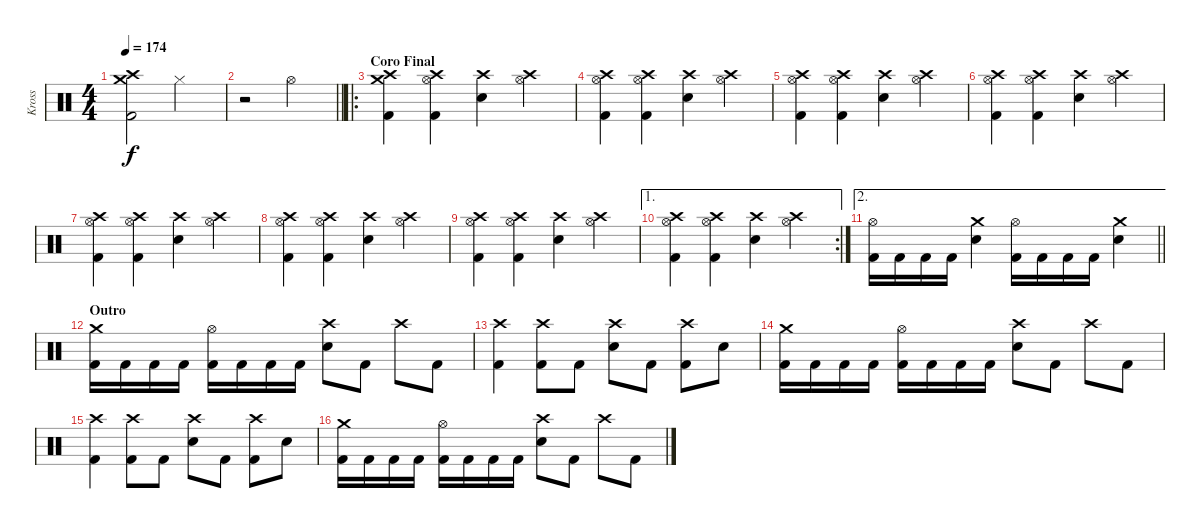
\track ("Kross" "Kross") {instrument percussion}
\staff {score}
\articulation defaults
\ts (4 4)
\tempo 174
\clef neutral
\ks c
("Crash high (hit)" "Crash medium (hit)" "Kick (hit) 2").2{dy f} "Hi-Hat (closed)".2 |
\barLineRight lightlight
r.2 "Hi-Hat (open)".2 |
\ro
\section ("" "Coro Final")
("Crash high (hit)" "Crash medium (hit)" "Kick (hit) 2").4 ("Crash high (hit)" "Hi-Hat (open)" "Kick (hit) 2").4 ("Crash high (hit)" "Electric Snare (hit)").4 ("Crash high (hit)" "Hi-Hat (open)").4 |
("Crash high (hit)" "Hi-Hat (open)" "Kick (hit) 2").4 ("Crash high (hit)" "Hi-Hat (open)" "Kick (hit) 2").4 ("Crash high (hit)" "Electric Snare (hit)").4 ("Crash high (hit)" "Hi-Hat (open)").4 |
("Crash high (hit)" "Hi-Hat (open)" "Kick (hit) 2").4 ("Crash high (hit)" "Hi-Hat (open)" "Kick (hit) 2").4 ("Crash high (hit)" "Electric Snare (hit)").4 ("Crash high (hit)" "Hi-Hat (open)").4 |
("Crash high (hit)" "Hi-Hat (open)" "Kick (hit) 2").4 ("Crash high (hit)" "Hi-Hat (open)" "Kick (hit) 2").4 ("Crash high (hit)" "Electric Snare (hit)").4 ("Crash high (hit)" "Hi-Hat (open)").4 |
("Crash high (hit)" "Hi-Hat (open)" "Kick (hit) 2").4 ("Crash high (hit)" "Hi-Hat (open)" "Kick (hit) 2").4 ("Crash high (hit)" "Electric Snare (hit)").4 ("Crash high (hit)" "Hi-Hat (open)").4 |
("Crash high (hit)" "Hi-Hat (open)" "Kick (hit) 2").4 ("Crash high (hit)" "Hi-Hat (open)" "Kick (hit) 2").4 ("Crash high (hit)" "Electric Snare (hit)").4 ("Crash high (hit)" "Hi-Hat (open)").4 |
("Crash high (hit)" "Hi-Hat (open)" "Kick (hit) 2").4 ("Crash high (hit)" "Hi-Hat (open)" "Kick (hit) 2").4 ("Crash high (hit)" "Electric Snare (hit)").4 ("Crash high (hit)" "Hi-Hat (open)").4 |
\ae 1
\rc 2
("Crash high (hit)" "Hi-Hat (open)" "Kick (hit) 2").4 ("Crash high (hit)" "Hi-Hat (open)" "Kick (hit) 2").4 ("Crash high (hit)" "Electric Snare (hit)").4 ("Crash high (hit)" "Hi-Hat (open)").4 |
\ae 2
\barLineRight lightlight
("Hi-Hat (open)" "Kick (hit) 2").16 "Kick (hit) 2".16 "Kick (hit) 2".16 "Kick (hit) 2".16 ("Crash medium (hit)" "Electric Snare (hit)").4 ("Hi-Hat (open)" "Kick (hit) 2").16 "Kick (hit) 2".16 "Kick (hit) 2".16 "Kick (hit) 2".16 ("Crash medium (hit)" "Electric Snare (hit)").4 |
\section ("" "Outro")
("Crash medium (hit)" "Kick (hit) 2").16 "Kick (hit) 2".16 "Kick (hit) 2".16 "Kick (hit) 2".16 ("Hi-Hat (open)" "Kick (hit) 2").16 "Kick (hit) 2".16 "Kick (hit) 2".16 "Kick (hit) 2".16 ("Crash high (hit)" "Electric Snare (hit)").8 "Kick (hit) 2".8 "Crash high (hit)".8 "Kick (hit) 2".8 |
("Crash high (hit)" "Kick (hit) 2").4 ("Crash high (hit)" "Kick (hit) 2").8 "Kick (hit) 2".8 ("Crash high (hit)" "Electric Snare (hit)").8 "Kick (hit) 2".8 ("Crash high (hit)" "Kick (hit) 2").8 "Electric Snare (hit)".8 |
("Crash medium (hit)" "Kick (hit) 2").16 "Kick (hit) 2".16 "Kick (hit) 2".16 "Kick (hit) 2".16 ("Hi-Hat (open)" "Kick (hit) 2").16 "Kick (hit) 2".16 "Kick (hit) 2".16 "Kick (hit) 2".16 ("Crash high (hit)" "Electric Snare (hit)").8 "Kick (hit) 2".8 "Crash high (hit)".8 "Kick (hit) 2".8 |
("Crash high (hit)" "Kick (hit) 2").4 ("Crash high (hit)" "Kick (hit) 2").8 "Kick (hit) 2".8 ("Crash high (hit)" "Electric Snare (hit)").8 "Kick (hit) 2".8 ("Crash high (hit)" "Kick (hit) 2").8 "Electric Snare (hit)".8 |
("Crash medium (hit)" "Kick (hit) 2").16 "Kick (hit) 2".16 "Kick (hit) 2".16 "Kick (hit) 2".16 ("Hi-Hat (open)" "Kick (hit) 2").16 "Kick (hit) 2".16 "Kick (hit) 2".16 "Kick (hit) 2".16 ("Crash high (hit)" "Electric Snare (hit)").8 "Kick (hit) 2".8 "Crash high (hit)".8 "Kick (hit) 2".8
